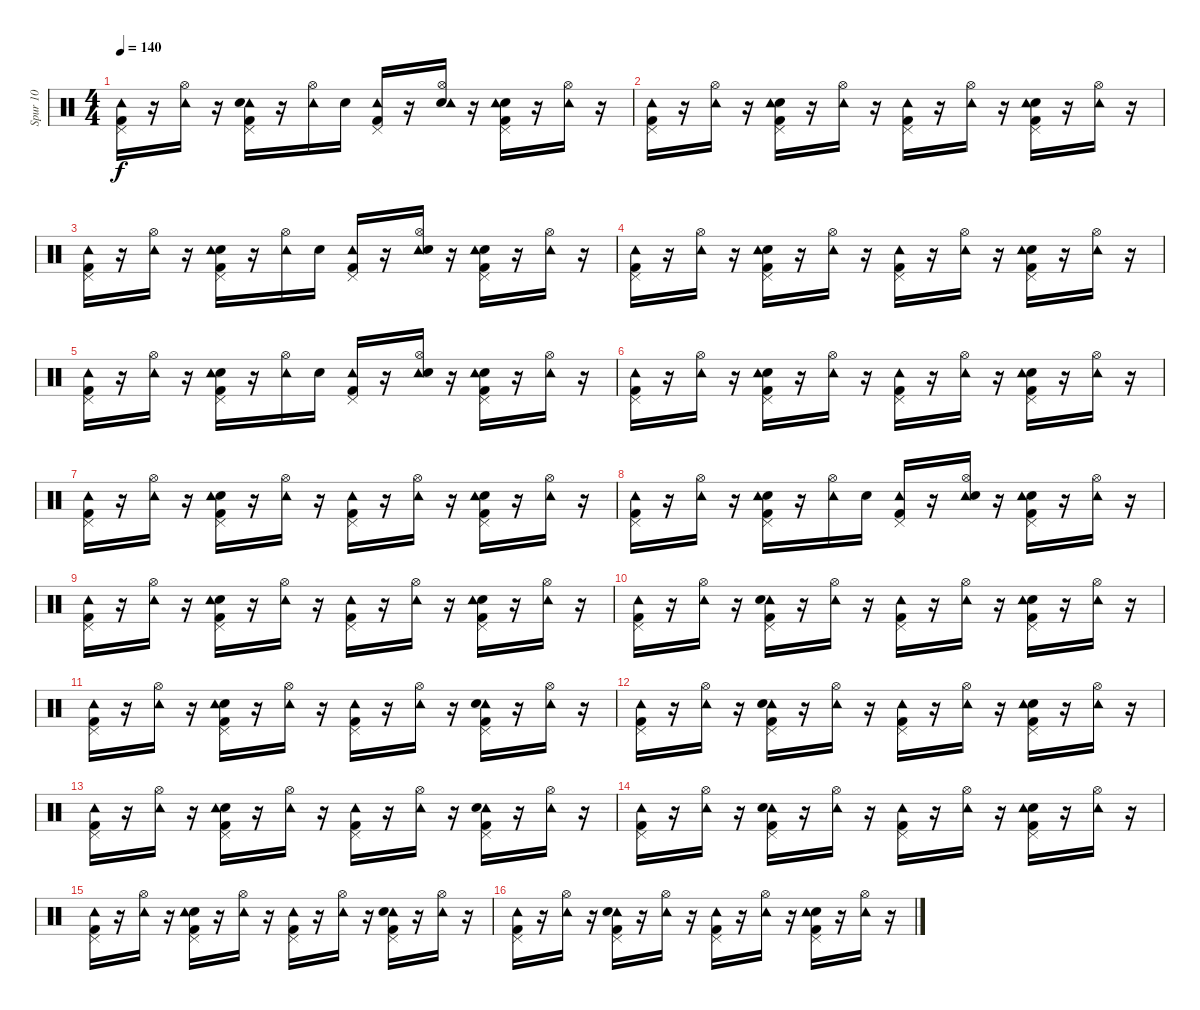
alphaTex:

\track ("Spur 10" "Spur 10") {instrument percussion}
\staff {score}
\articulation defaults
\ts (4 4)
\tempo 140
\clef neutral
\ks c
("Tambourine (hit)" "Kick (hit) 2" "Pedal Hi-Hat (hit)").16{dy f} r.16 ("Tambourine (hit)" "Hi-Hat (open)").16 r.16 ("Pedal Hi-Hat (hit)" "Kick (hit) 2" "Tambourine (hit)" "Snare (hit) 2").16 r.16 ("Tambourine (hit)" "Hi-Hat (open)").16 "Snare (hit) 2".16 ("Pedal Hi-Hat (hit)" "Kick (hit) 2" "Tambourine (hit)").16 r.16 ("Snare (hit) 2" "Tambourine (hit)" "Hi-Hat (open)").16 r.16 ("Snare (hit) 2" "Kick (hit) 2" "Pedal Hi-Hat (hit)" "Tambourine (hit)").16 r.16 ("Hi-Hat (open)" "Tambourine (hit)").16 r.16 |
("Tambourine (hit)" "Pedal Hi-Hat (hit)" "Kick (hit) 2").16 r.16 ("Hi-Hat (open)" "Tambourine (hit)").16 r.16 ("Pedal Hi-Hat (hit)" "Snare (hit) 2" "Tambourine (hit)" "Kick (hit) 2").16 r.16 ("Hi-Hat (open)" "Tambourine (hit)").16 r.16 ("Pedal Hi-Hat (hit)" "Kick (hit) 2" "Tambourine (hit)").16 r.16 ("Tambourine (hit)" "Hi-Hat (open)").16 r.16 ("Snare (hit) 2" "Kick (hit) 2" "Pedal Hi-Hat (hit)" "Tambourine (hit)").16 r.16 ("Tambourine (hit)" "Hi-Hat (open)").16 r.16 |
("Kick (hit) 2" "Tambourine (hit)" "Pedal Hi-Hat (hit)").16 r.16 ("Tambourine (hit)" "Hi-Hat (open)").16 r.16 ("Kick (hit) 2" "Snare (hit) 2" "Tambourine (hit)" "Pedal Hi-Hat (hit)").16 r.16 ("Hi-Hat (open)" "Tambourine (hit)").16 "Snare (hit) 2".16 ("Pedal Hi-Hat (hit)" "Kick (hit) 2" "Tambourine (hit)").16 r.16 ("Tambourine (hit)" "Snare (hit) 2" "Hi-Hat (open)").16 r.16 ("Snare (hit) 2" "Tambourine (hit)" "Kick (hit) 2" "Pedal Hi-Hat (hit)").16 r.16 ("Hi-Hat (open)" "Tambourine (hit)").16 r.16 |
("Tambourine (hit)" "Pedal Hi-Hat (hit)" "Kick (hit) 2").16 r.16 ("Hi-Hat (open)" "Tambourine (hit)").16 r.16 ("Pedal Hi-Hat (hit)" "Snare (hit) 2" "Tambourine (hit)" "Kick (hit) 2").16 r.16 ("Hi-Hat (open)" "Tambourine (hit)").16 r.16 ("Pedal Hi-Hat (hit)" "Kick (hit) 2" "Tambourine (hit)").16 r.16 ("Tambourine (hit)" "Hi-Hat (open)").16 r.16 ("Snare (hit) 2" "Kick (hit) 2" "Pedal Hi-Hat (hit)" "Tambourine (hit)").16 r.16 ("Tambourine (hit)" "Hi-Hat (open)").16 r.16 |
("Kick (hit) 2" "Tambourine (hit)" "Pedal Hi-Hat (hit)").16 r.16 ("Tambourine (hit)" "Hi-Hat (open)").16 r.16 ("Kick (hit) 2" "Snare (hit) 2" "Tambourine (hit)" "Pedal Hi-Hat (hit)").16 r.16 ("Hi-Hat (open)" "Tambourine (hit)").16 "Snare (hit) 2".16 ("Pedal Hi-Hat (hit)" "Kick (hit) 2" "Tambourine (hit)").16 r.16 ("Tambourine (hit)" "Snare (hit) 2" "Hi-Hat (open)").16 r.16 ("Snare (hit) 2" "Tambourine (hit)" "Kick (hit) 2" "Pedal Hi-Hat (hit)").16 r.16 ("Hi-Hat (open)" "Tambourine (hit)").16 r.16 |
("Tambourine (hit)" "Pedal Hi-Hat (hit)" "Kick (hit) 2").16 r.16 ("Hi-Hat (open)" "Tambourine (hit)").16 r.16 ("Pedal Hi-Hat (hit)" "Snare (hit) 2" "Tambourine (hit)" "Kick (hit) 2").16 r.16 ("Hi-Hat (open)" "Tambourine (hit)").16 r.16 ("Pedal Hi-Hat (hit)" "Kick (hit) 2" "Tambourine (hit)").16 r.16 ("Tambourine (hit)" "Hi-Hat (open)").16 r.16 ("Snare (hit) 2" "Kick (hit) 2" "Pedal Hi-Hat (hit)" "Tambourine (hit)").16 r.16 ("Tambourine (hit)" "Hi-Hat (open)").16 r.16 |
("Tambourine (hit)" "Pedal Hi-Hat (hit)" "Kick (hit) 2").16 r.16 ("Hi-Hat (open)" "Tambourine (hit)").16 r.16 ("Pedal Hi-Hat (hit)" "Snare (hit) 2" "Tambourine (hit)" "Kick (hit) 2").16 r.16 ("Hi-Hat (open)" "Tambourine (hit)").16 r.16 ("Pedal Hi-Hat (hit)" "Kick (hit) 2" "Tambourine (hit)").16 r.16 ("Tambourine (hit)" "Hi-Hat (open)").16 r.16 ("Snare (hit) 2" "Kick (hit) 2" "Pedal Hi-Hat (hit)" "Tambourine (hit)").16 r.16 ("Tambourine (hit)" "Hi-Hat (open)").16 r.16 |
("Kick (hit) 2" "Tambourine (hit)" "Pedal Hi-Hat (hit)").16 r.16 ("Tambourine (hit)" "Hi-Hat (open)").16 r.16 ("Kick (hit) 2" "Snare (hit) 2" "Tambourine (hit)" "Pedal Hi-Hat (hit)").16 r.16 ("Hi-Hat (open)" "Tambourine (hit)").16 "Snare (hit) 2".16 ("Pedal Hi-Hat (hit)" "Kick (hit) 2" "Tambourine (hit)").16 r.16 ("Tambourine (hit)" "Snare (hit) 2" "Hi-Hat (open)").16 r.16 ("Snare (hit) 2" "Tambourine (hit)" "Kick (hit) 2" "Pedal Hi-Hat (hit)").16 r.16 ("Hi-Hat (open)" "Tambourine (hit)").16 r.16 |
("Tambourine (hit)" "Pedal Hi-Hat (hit)" "Kick (hit) 2").16 r.16 ("Hi-Hat (open)" "Tambourine (hit)").16 r.16 ("Pedal Hi-Hat (hit)" "Snare (hit) 2" "Tambourine (hit)" "Kick (hit) 2").16 r.16 ("Hi-Hat (open)" "Tambourine (hit)").16 r.16 ("Pedal Hi-Hat (hit)" "Kick (hit) 2" "Tambourine (hit)").16 r.16 ("Tambourine (hit)" "Hi-Hat (open)").16 r.16 ("Snare (hit) 2" "Kick (hit) 2" "Pedal Hi-Hat (hit)" "Tambourine (hit)").16 r.16 ("Tambourine (hit)" "Hi-Hat (open)").16 r.16 |
("Pedal Hi-Hat (hit)" "Tambourine (hit)" "Kick (hit) 2").16 r.16 ("Tambourine (hit)" "Hi-Hat (open)").16 r.16 ("Kick (hit) 2" "Tambourine (hit)" "Snare (hit) 2" "Pedal Hi-Hat (hit)").16 r.16 ("Hi-Hat (open)" "Tambourine (hit)").16 r.16 ("Pedal Hi-Hat (hit)" "Tambourine (hit)" "Kick (hit) 2").16 r.16 ("Hi-Hat (open)" "Tambourine (hit)").16 r.16 ("Kick (hit) 2" "Snare (hit) 2" "Pedal Hi-Hat (hit)" "Tambourine (hit)").16 r.16 ("Hi-Hat (open)" "Tambourine (hit)").16 r.16 |
("Pedal Hi-Hat (hit)" "Kick (hit) 2" "Tambourine (hit)").16 r.16 ("Hi-Hat (open)" "Tambourine (hit)").16 r.16 ("Pedal Hi-Hat (hit)" "Kick (hit) 2" "Snare (hit) 2" "Tambourine (hit)").16 r.16 ("Tambourine (hit)" "Hi-Hat (open)").16 r.16 ("Tambourine (hit)" "Pedal Hi-Hat (hit)" "Kick (hit) 2").16 r.16 ("Hi-Hat (open)" "Tambourine (hit)").16 r.16 ("Kick (hit) 2" "Tambourine (hit)" "Snare (hit) 2" "Pedal Hi-Hat (hit)").16 r.16 ("Tambourine (hit)" "Hi-Hat (open)").16 r.16 |
("Pedal Hi-Hat (hit)" "Tambourine (hit)" "Kick (hit) 2").16 r.16 ("Tambourine (hit)" "Hi-Hat (open)").16 r.16 ("Kick (hit) 2" "Tambourine (hit)" "Snare (hit) 2" "Pedal Hi-Hat (hit)").16 r.16 ("Hi-Hat (open)" "Tambourine (hit)").16 r.16 ("Pedal Hi-Hat (hit)" "Tambourine (hit)" "Kick (hit) 2").16 r.16 ("Hi-Hat (open)" "Tambourine (hit)").16 r.16 ("Kick (hit) 2" "Snare (hit) 2" "Pedal Hi-Hat (hit)" "Tambourine (hit)").16 r.16 ("Hi-Hat (open)" "Tambourine (hit)").16 r.16 |
("Pedal Hi-Hat (hit)" "Kick (hit) 2" "Tambourine (hit)").16 r.16 ("Hi-Hat (open)" "Tambourine (hit)").16 r.16 ("Pedal Hi-Hat (hit)" "Kick (hit) 2" "Snare (hit) 2" "Tambourine (hit)").16 r.16 ("Tambourine (hit)" "Hi-Hat (open)").16 r.16 ("Tambourine (hit)" "Pedal Hi-Hat (hit)" "Kick (hit) 2").16 r.16 ("Hi-Hat (open)" "Tambourine (hit)").16 r.16 ("Kick (hit) 2" "Tambourine (hit)" "Snare (hit) 2" "Pedal Hi-Hat (hit)").16 r.16 ("Tambourine (hit)" "Hi-Hat (open)").16 r.16 |
("Pedal Hi-Hat (hit)" "Tambourine (hit)" "Kick (hit) 2").16 r.16 ("Tambourine (hit)" "Hi-Hat (open)").16 r.16 ("Kick (hit) 2" "Tambourine (hit)" "Snare (hit) 2" "Pedal Hi-Hat (hit)").16 r.16 ("Hi-Hat (open)" "Tambourine (hit)").16 r.16 ("Pedal Hi-Hat (hit)" "Tambourine (hit)" "Kick (hit) 2").16 r.16 ("Hi-Hat (open)" "Tambourine (hit)").16 r.16 ("Kick (hit) 2" "Snare (hit) 2" "Pedal Hi-Hat (hit)" "Tambourine (hit)").16 r.16 ("Hi-Hat (open)" "Tambourine (hit)").16 r.16 |
("Pedal Hi-Hat (hit)" "Kick (hit) 2" "Tambourine (hit)").16 r.16 ("Hi-Hat (open)" "Tambourine (hit)").16 r.16 ("Pedal Hi-Hat (hit)" "Kick (hit) 2" "Snare (hit) 2" "Tambourine (hit)").16 r.16 ("Tambourine (hit)" "Hi-Hat (open)").16 r.16 ("Tambourine (hit)" "Pedal Hi-Hat (hit)" "Kick (hit) 2").16 r.16 ("Hi-Hat (open)" "Tambourine (hit)").16 r.16 ("Kick (hit) 2" "Tambourine (hit)" "Snare (hit) 2" "Pedal Hi-Hat (hit)").16 r.16 ("Tambourine (hit)" "Hi-Hat (open)").16 r.16 |
("Pedal Hi-Hat (hit)" "Tambourine (hit)" "Kick (hit) 2").16 r.16 ("Tambourine (hit)" "Hi-Hat (open)").16 r.16 ("Kick (hit) 2" "Tambourine (hit)" "Snare (hit) 2" "Pedal Hi-Hat (hit)").16 r.16 ("Hi-Hat (open)" "Tambourine (hit)").16 r.16 ("Pedal Hi-Hat (hit)" "Tambourine (hit)" "Kick (hit) 2").16 r.16 ("Hi-Hat (open)" "Tambourine (hit)").16 r.16 ("Kick (hit) 2" "Snare (hit) 2" "Pedal Hi-Hat (hit)" "Tambourine (hit)").16 r.16 ("Hi-Hat (open)" "Tambourine (hit)").16 r.16
